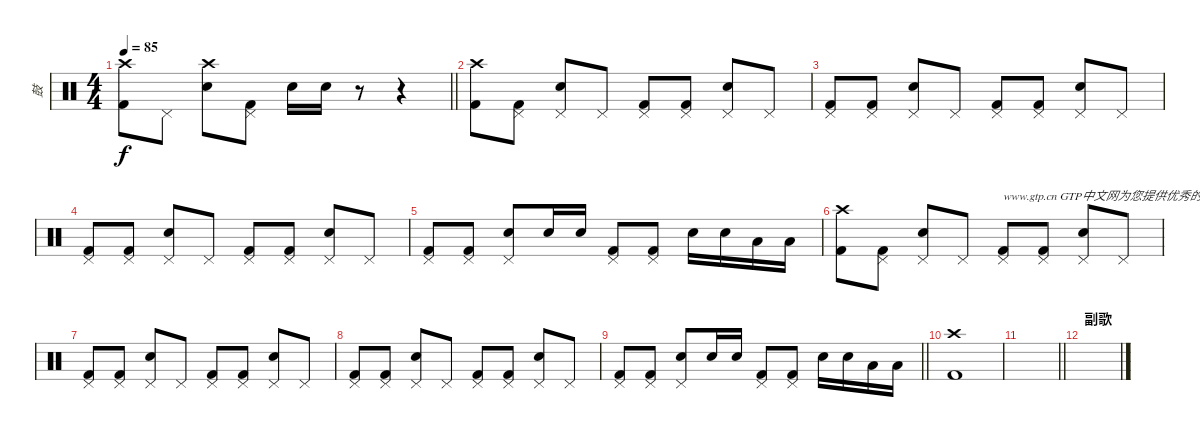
\track ("鼓" "鼓") {instrument percussion}
\staff {score}
\articulation defaults
\ts (4 4)
\tempo 85
\clef neutral
\barLineRight lightlight
\ks c
("Crash high (hit)" "Kick (hit) 2").8{dy f} "Pedal Hi-Hat (hit)".8 ("Crash high (hit)" "Electric Snare (hit)").8 ("Pedal Hi-Hat (hit)" "Kick (hit) 2").8 "Electric Snare (hit)".16 "Electric Snare (hit)".16 r.8 r.4 |
("Crash high (hit)" "Kick (hit) 2").8 ("Pedal Hi-Hat (hit)" "Kick (hit) 2").8 ("Pedal Hi-Hat (hit)" "Electric Snare (hit)").8 "Pedal Hi-Hat (hit)".8 ("Pedal Hi-Hat (hit)" "Kick (hit) 2").8 ("Pedal Hi-Hat (hit)" "Kick (hit) 2").8 ("Pedal Hi-Hat (hit)" "Electric Snare (hit)").8 "Pedal Hi-Hat (hit)".8 |
("Pedal Hi-Hat (hit)" "Kick (hit) 2").8 ("Pedal Hi-Hat (hit)" "Kick (hit) 2").8 ("Pedal Hi-Hat (hit)" "Electric Snare (hit)").8 "Pedal Hi-Hat (hit)".8 ("Pedal Hi-Hat (hit)" "Kick (hit) 2").8 ("Pedal Hi-Hat (hit)" "Kick (hit) 2").8 ("Pedal Hi-Hat (hit)" "Electric Snare (hit)").8 "Pedal Hi-Hat (hit)".8 |
("Pedal Hi-Hat (hit)" "Kick (hit) 2").8 ("Pedal Hi-Hat (hit)" "Kick (hit) 2").8 ("Pedal Hi-Hat (hit)" "Electric Snare (hit)").8 "Pedal Hi-Hat (hit)".8 ("Pedal Hi-Hat (hit)" "Kick (hit) 2").8 ("Pedal Hi-Hat (hit)" "Kick (hit) 2").8 ("Pedal Hi-Hat (hit)" "Electric Snare (hit)").8 "Pedal Hi-Hat (hit)".8 |
("Pedal Hi-Hat (hit)" "Kick (hit) 2").8 ("Pedal Hi-Hat (hit)" "Kick (hit) 2").8 ("Pedal Hi-Hat (hit)" "Electric Snare (hit)").8 "Electric Snare (hit)".16 "Electric Snare (hit)".16 ("Pedal Hi-Hat (hit)" "Kick (hit) 2").8 ("Pedal Hi-Hat (hit)" "Kick (hit) 2").8 "Electric Snare (hit)".16 "Electric Snare (hit)".16 "Low Floor Tom (hit)".16 "Low Floor Tom (hit)".16 |
("Crash high (hit)" "Kick (hit) 2").8 ("Pedal Hi-Hat (hit)" "Kick (hit) 2").8 ("Pedal Hi-Hat (hit)" "Electric Snare (hit)").8 "Pedal Hi-Hat (hit)".8 ("Pedal Hi-Hat (hit)" "Kick (hit) 2").8{txt "www.gtp.cn GTP中文网为您提供优秀的谱子"} ("Pedal Hi-Hat (hit)" "Kick (hit) 2").8 ("Pedal Hi-Hat (hit)" "Electric Snare (hit)").8 "Pedal Hi-Hat (hit)".8 |
("Pedal Hi-Hat (hit)" "Kick (hit) 2").8 ("Pedal Hi-Hat (hit)" "Kick (hit) 2").8 ("Pedal Hi-Hat (hit)" "Electric Snare (hit)").8 "Pedal Hi-Hat (hit)".8 ("Pedal Hi-Hat (hit)" "Kick (hit) 2").8 ("Pedal Hi-Hat (hit)" "Kick (hit) 2").8 ("Pedal Hi-Hat (hit)" "Electric Snare (hit)").8 "Pedal Hi-Hat (hit)".8 |
("Pedal Hi-Hat (hit)" "Kick (hit) 2").8 ("Pedal Hi-Hat (hit)" "Kick (hit) 2").8 ("Pedal Hi-Hat (hit)" "Electric Snare (hit)").8 "Pedal Hi-Hat (hit)".8 ("Pedal Hi-Hat (hit)" "Kick (hit) 2").8 ("Pedal Hi-Hat (hit)" "Kick (hit) 2").8 ("Pedal Hi-Hat (hit)" "Electric Snare (hit)").8 "Pedal Hi-Hat (hit)".8 |
\barLineRight lightlight
("Pedal Hi-Hat (hit)" "Kick (hit) 2").8 ("Pedal Hi-Hat (hit)" "Kick (hit) 2").8 ("Pedal Hi-Hat (hit)" "Electric Snare (hit)").8 "Electric Snare (hit)".16 "Electric Snare (hit)".16 ("Pedal Hi-Hat (hit)" "Kick (hit) 2").8 ("Pedal Hi-Hat (hit)" "Kick (hit) 2").8 "Electric Snare (hit)".16 "Electric Snare (hit)".16 "Low Floor Tom (hit)".16 "Low Floor Tom (hit)".16 |
("Crash high (hit)" "Kick (hit) 2").1 |
\barLineRight lightlight
|
\section ("" "副歌")
